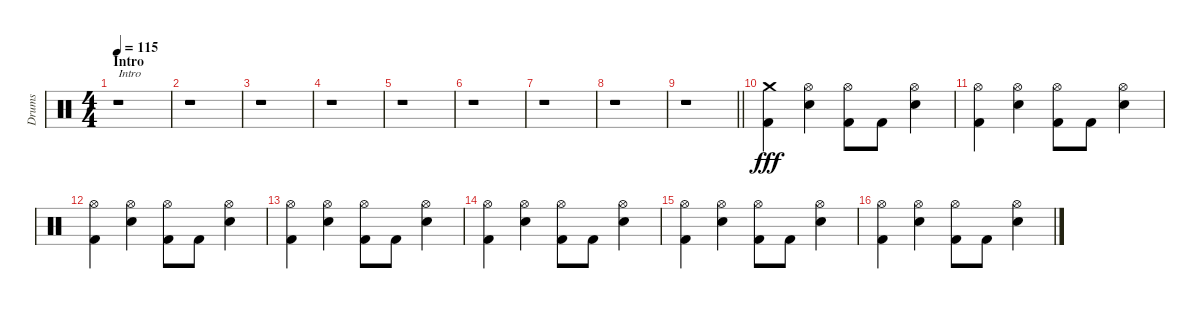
\track ("Drums" "Drums") {instrument percussion}
\staff {score}
\articulation defaults
\ts (4 4)
\section ("" "Intro")
\tempo 115
\clef neutral
\ks c
r.1{txt "Intro" dy fff} |
r.1 |
r.1 |
r.1 |
r.1 |
r.1 |
r.1 |
r.1 |
\barLineRight lightlight
r.1 |
("Crash medium (hit)" "Kick (hit) 2").4 ("Hi-Hat (open)" "Snare (hit) 2").4 ("Hi-Hat (open)" "Kick (hit) 2").8 "Kick (hit) 2".8 ("Hi-Hat (open)" "Snare (hit) 2").4 |
("Hi-Hat (open)" "Kick (hit) 2").4 ("Hi-Hat (open)" "Snare (hit) 2").4 ("Hi-Hat (open)" "Kick (hit) 2").8 "Kick (hit) 2".8 ("Hi-Hat (open)" "Snare (hit) 2").4 |
("Hi-Hat (open)" "Kick (hit) 2").4 ("Hi-Hat (open)" "Snare (hit) 2").4 ("Hi-Hat (open)" "Kick (hit) 2").8 "Kick (hit) 2".8 ("Hi-Hat (open)" "Snare (hit) 2").4 |
("Hi-Hat (open)" "Kick (hit) 2").4 ("Hi-Hat (open)" "Snare (hit) 2").4 ("Hi-Hat (open)" "Kick (hit) 2").8 "Kick (hit) 2".8 ("Hi-Hat (open)" "Snare (hit) 2").4 |
("Hi-Hat (open)" "Kick (hit) 2").4 ("Hi-Hat (open)" "Snare (hit) 2").4 ("Hi-Hat (open)" "Kick (hit) 2").8 "Kick (hit) 2".8 ("Hi-Hat (open)" "Snare (hit) 2").4 |
("Hi-Hat (open)" "Kick (hit) 2").4 ("Hi-Hat (open)" "Snare (hit) 2").4 ("Hi-Hat (open)" "Kick (hit) 2").8 "Kick (hit) 2".8 ("Hi-Hat (open)" "Snare (hit) 2").4 |
("Hi-Hat (open)" "Kick (hit) 2").4 ("Hi-Hat (open)" "Snare (hit) 2").4 ("Hi-Hat (open)" "Kick (hit) 2").8 "Kick (hit) 2".8 ("Hi-Hat (open)" "Snare (hit) 2").4
